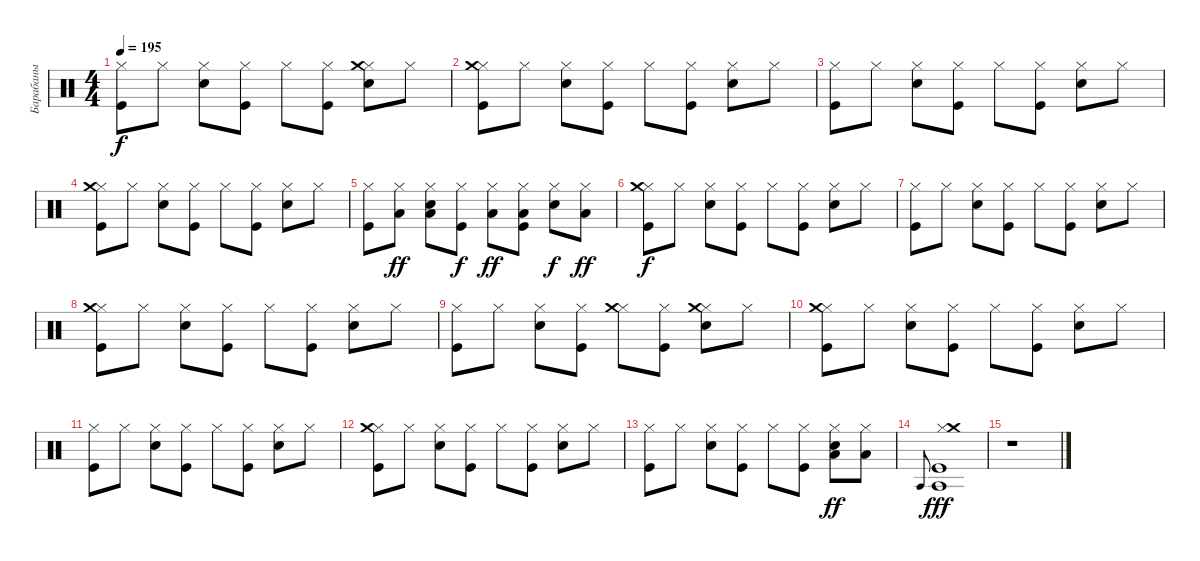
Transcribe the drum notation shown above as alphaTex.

\track ("Барабаны" "Барабаны") {instrument percussion}
\staff {score}
\articulation defaults
\ts (4 4)
\tempo 195
\clef neutral
\ks c
("Kick (hit)" "Hi-Hat (closed)").8{dy f} "Hi-Hat (closed)".8 ("Snare (hit) 2" "Hi-Hat (closed)").8 ("Kick (hit)" "Hi-Hat (closed)").8 "Hi-Hat (closed)".8 ("Kick (hit)" "Hi-Hat (closed)").8 ("Snare (hit) 2" "Hi-Hat (closed)" "Crash medium (hit)").8 "Hi-Hat (closed)".8 |
("Kick (hit)" "Hi-Hat (closed)" "Crash medium (hit)").8 "Hi-Hat (closed)".8 ("Snare (hit) 2" "Hi-Hat (closed)").8 ("Kick (hit)" "Hi-Hat (closed)").8 "Hi-Hat (closed)".8 ("Kick (hit)" "Hi-Hat (closed)").8 ("Snare (hit) 2" "Hi-Hat (closed)").8 "Hi-Hat (closed)".8 |
("Kick (hit)" "Hi-Hat (closed)").8 "Hi-Hat (closed)".8 ("Snare (hit) 2" "Hi-Hat (closed)").8 ("Kick (hit)" "Hi-Hat (closed)").8 "Hi-Hat (closed)".8 ("Kick (hit)" "Hi-Hat (closed)").8 ("Snare (hit) 2" "Hi-Hat (closed)").8 "Hi-Hat (closed)".8 |
("Kick (hit)" "Hi-Hat (closed)" "Crash medium (hit)").8 "Hi-Hat (closed)".8 ("Snare (hit) 2" "Hi-Hat (closed)").8 ("Kick (hit)" "Hi-Hat (closed)").8 "Hi-Hat (closed)".8 ("Kick (hit)" "Hi-Hat (closed)").8 ("Snare (hit) 2" "Hi-Hat (closed)").8 "Hi-Hat (closed)".8 |
("Kick (hit)" "Hi-Hat (closed)").8 ("Hi-Hat (closed)" "Low Tom (hit)").8{dy ff} ("Snare (hit) 2" "Hi-Hat (closed)" "Low Tom (hit)").8 ("Kick (hit)" "Hi-Hat (closed)").8{dy f} ("Hi-Hat (closed)" "Low Tom (hit)").8{dy ff} ("Kick (hit)" "Hi-Hat (closed)" "Low Tom (hit)").8 ("Snare (hit) 2" "Hi-Hat (closed)").8{dy f} ("Hi-Hat (closed)" "Low Tom (hit)").8{dy ff} |
("Kick (hit)" "Hi-Hat (closed)" "Crash medium (hit)").8{dy f} "Hi-Hat (closed)".8 ("Snare (hit) 2" "Hi-Hat (closed)").8 ("Kick (hit)" "Hi-Hat (closed)").8 "Hi-Hat (closed)".8 ("Kick (hit)" "Hi-Hat (closed)").8 ("Snare (hit) 2" "Hi-Hat (closed)").8 "Hi-Hat (closed)".8 |
("Kick (hit)" "Hi-Hat (closed)").8 "Hi-Hat (closed)".8 ("Snare (hit) 2" "Hi-Hat (closed)").8 ("Kick (hit)" "Hi-Hat (closed)").8 "Hi-Hat (closed)".8 ("Kick (hit)" "Hi-Hat (closed)").8 ("Snare (hit) 2" "Hi-Hat (closed)").8 "Hi-Hat (closed)".8 |
("Kick (hit)" "Hi-Hat (closed)" "Crash medium (hit)").8 "Hi-Hat (closed)".8 ("Snare (hit) 2" "Hi-Hat (closed)").8 ("Kick (hit)" "Hi-Hat (closed)").8 "Hi-Hat (closed)".8 ("Kick (hit)" "Hi-Hat (closed)").8 ("Snare (hit) 2" "Hi-Hat (closed)").8 "Hi-Hat (closed)".8 |
("Kick (hit)" "Hi-Hat (closed)").8 "Hi-Hat (closed)".8 ("Snare (hit) 2" "Hi-Hat (closed)").8 ("Kick (hit)" "Hi-Hat (closed)").8 ("Hi-Hat (closed)" "Crash medium (hit)").8 ("Kick (hit)" "Hi-Hat (closed)").8 ("Snare (hit) 2" "Hi-Hat (closed)" "Crash medium (hit)").8 "Hi-Hat (closed)".8 |
("Kick (hit)" "Hi-Hat (closed)" "Crash medium (hit)").8 "Hi-Hat (closed)".8 ("Snare (hit) 2" "Hi-Hat (closed)").8 ("Kick (hit)" "Hi-Hat (closed)").8 "Hi-Hat (closed)".8 ("Kick (hit)" "Hi-Hat (closed)").8 ("Snare (hit) 2" "Hi-Hat (closed)").8 "Hi-Hat (closed)".8 |
("Kick (hit)" "Hi-Hat (closed)").8 "Hi-Hat (closed)".8 ("Snare (hit) 2" "Hi-Hat (closed)").8 ("Kick (hit)" "Hi-Hat (closed)").8 "Hi-Hat (closed)".8 ("Kick (hit)" "Hi-Hat (closed)").8 ("Snare (hit) 2" "Hi-Hat (closed)").8 "Hi-Hat (closed)".8 |
("Kick (hit)" "Hi-Hat (closed)" "Crash medium (hit)").8 "Hi-Hat (closed)".8 ("Snare (hit) 2" "Hi-Hat (closed)").8 ("Kick (hit)" "Hi-Hat (closed)").8 "Hi-Hat (closed)".8 ("Kick (hit)" "Hi-Hat (closed)").8 ("Snare (hit) 2" "Hi-Hat (closed)").8 "Hi-Hat (closed)".8 |
("Kick (hit)" "Hi-Hat (closed)").8 "Hi-Hat (closed)".8 ("Snare (hit) 2" "Hi-Hat (closed)").8 ("Kick (hit)" "Hi-Hat (closed)").8 "Hi-Hat (closed)".8 ("Kick (hit)" "Hi-Hat (closed)").8 ("Snare (hit) 2" "Hi-Hat (closed)" "Low Tom (hit)").8{dy ff} ("Hi-Hat (closed)" "Low Tom (hit)").8 |
"Agogo tow (hit)".8{gr onbeat} ("Kick (hit)" "Hi-Hat (closed)" "Crash medium (hit)" "Agogo tow (hit)").1{dy fff} |
r.1
